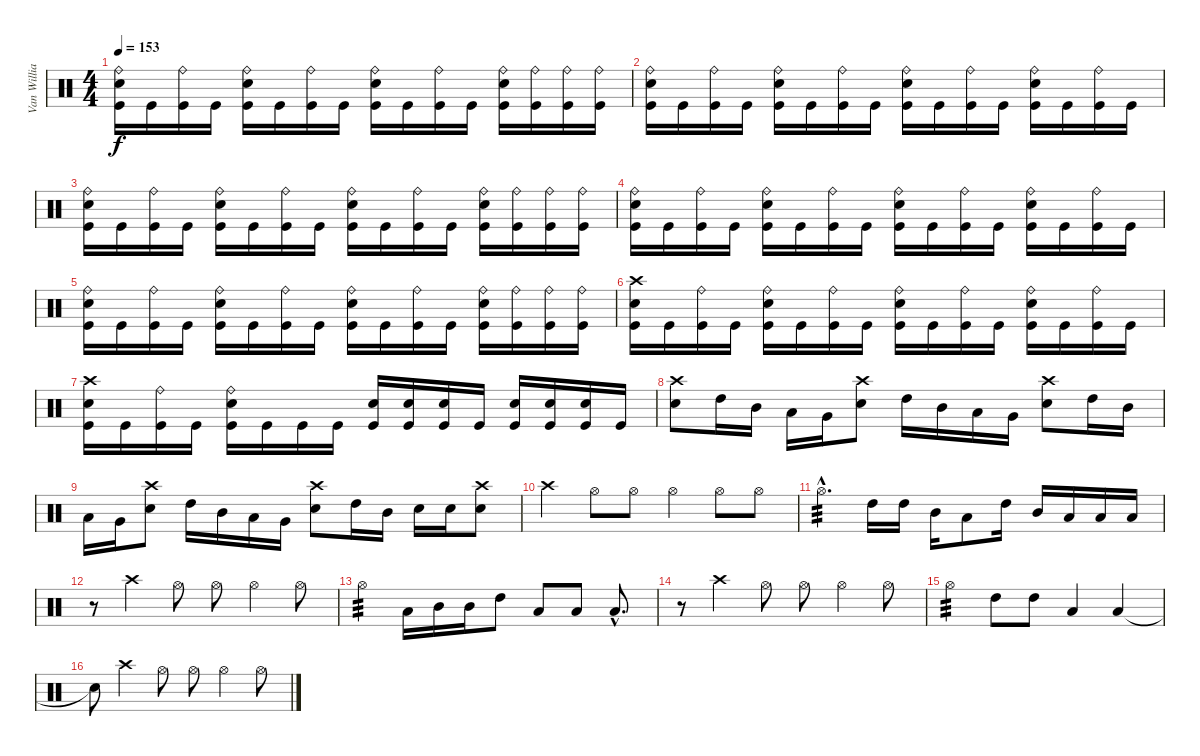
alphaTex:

\track ("Van Williams" "Van Willia") {instrument percussion}
\staff {score}
\articulation defaults
\ts (4 4)
\tempo 153
\clef neutral
\ks c
("Ride (bell)" "Electric Snare (hit)" "Kick (hit)").16{dy f} "Kick (hit)".16 ("Ride (bell)" "Kick (hit)").16 "Kick (hit)".16 ("Ride (bell)" "Electric Snare (hit)" "Kick (hit)").16 "Kick (hit)".16 ("Ride (bell)" "Kick (hit)").16 "Kick (hit)".16 ("Ride (bell)" "Electric Snare (hit)" "Kick (hit)").16 "Kick (hit)".16 ("Ride (bell)" "Kick (hit)").16 "Kick (hit)".16 ("Ride (bell)" "Electric Snare (hit)" "Kick (hit)").16 ("Ride (bell)" "Kick (hit)").16 ("Ride (bell)" "Kick (hit)").16 ("Ride (bell)" "Kick (hit)").16 |
("Ride (bell)" "Electric Snare (hit)" "Kick (hit)").16 "Kick (hit)".16 ("Ride (bell)" "Kick (hit)").16 "Kick (hit)".16 ("Ride (bell)" "Electric Snare (hit)" "Kick (hit)").16 "Kick (hit)".16 ("Ride (bell)" "Kick (hit)").16 "Kick (hit)".16 ("Ride (bell)" "Electric Snare (hit)" "Kick (hit)").16 "Kick (hit)".16 ("Ride (bell)" "Kick (hit)").16 "Kick (hit)".16 ("Ride (bell)" "Electric Snare (hit)" "Kick (hit)").16 "Kick (hit)".16 ("Ride (bell)" "Kick (hit)").16 "Kick (hit)".16 |
("Ride (bell)" "Electric Snare (hit)" "Kick (hit)").16 "Kick (hit)".16 ("Ride (bell)" "Kick (hit)").16 "Kick (hit)".16 ("Ride (bell)" "Electric Snare (hit)" "Kick (hit)").16 "Kick (hit)".16 ("Ride (bell)" "Kick (hit)").16 "Kick (hit)".16 ("Ride (bell)" "Electric Snare (hit)" "Kick (hit)").16 "Kick (hit)".16 ("Ride (bell)" "Kick (hit)").16 "Kick (hit)".16 ("Ride (bell)" "Electric Snare (hit)" "Kick (hit)").16 ("Ride (bell)" "Kick (hit)").16 ("Ride (bell)" "Kick (hit)").16 ("Ride (bell)" "Kick (hit)").16 |
("Ride (bell)" "Electric Snare (hit)" "Kick (hit)").16 "Kick (hit)".16 ("Ride (bell)" "Kick (hit)").16 "Kick (hit)".16 ("Ride (bell)" "Electric Snare (hit)" "Kick (hit)").16 "Kick (hit)".16 ("Ride (bell)" "Kick (hit)").16 "Kick (hit)".16 ("Ride (bell)" "Electric Snare (hit)" "Kick (hit)").16 "Kick (hit)".16 ("Ride (bell)" "Kick (hit)").16 "Kick (hit)".16 ("Ride (bell)" "Electric Snare (hit)" "Kick (hit)").16 "Kick (hit)".16 ("Ride (bell)" "Kick (hit)").16 "Kick (hit)".16 |
("Ride (bell)" "Electric Snare (hit)" "Kick (hit)").16 "Kick (hit)".16 ("Ride (bell)" "Kick (hit)").16 "Kick (hit)".16 ("Ride (bell)" "Electric Snare (hit)" "Kick (hit)").16 "Kick (hit)".16 ("Ride (bell)" "Kick (hit)").16 "Kick (hit)".16 ("Ride (bell)" "Electric Snare (hit)" "Kick (hit)").16 "Kick (hit)".16 ("Ride (bell)" "Kick (hit)").16 "Kick (hit)".16 ("Ride (bell)" "Electric Snare (hit)" "Kick (hit)").16 ("Ride (bell)" "Kick (hit)").16 ("Ride (bell)" "Kick (hit)").16 ("Ride (bell)" "Kick (hit)").16 |
("Crash high (hit)" "Electric Snare (hit)" "Kick (hit)").16 "Kick (hit)".16 ("Ride (bell)" "Kick (hit)").16 "Kick (hit)".16 ("Ride (bell)" "Electric Snare (hit)" "Kick (hit)").16 "Kick (hit)".16 ("Ride (bell)" "Kick (hit)").16 "Kick (hit)".16 ("Ride (bell)" "Electric Snare (hit)" "Kick (hit)").16 "Kick (hit)".16 ("Ride (bell)" "Kick (hit)").16 "Kick (hit)".16 ("Ride (bell)" "Electric Snare (hit)" "Kick (hit)").16 "Kick (hit)".16 ("Ride (bell)" "Kick (hit)").16 "Kick (hit)".16 |
("Crash high (hit)" "Electric Snare (hit)" "Kick (hit)").16 "Kick (hit)".16 ("Ride (bell)" "Kick (hit)").16 "Kick (hit)".16 ("Ride (bell)" "Electric Snare (hit)" "Kick (hit)").16 "Kick (hit)".16 "Kick (hit)".16 "Kick (hit)".16 ("Electric Snare (hit)" "Kick (hit)").16 ("Electric Snare (hit)" "Kick (hit)").16 ("Electric Snare (hit)" "Kick (hit)").16 "Kick (hit)".16 ("Electric Snare (hit)" "Kick (hit)").16 ("Electric Snare (hit)" "Kick (hit)").16 ("Electric Snare (hit)" "Kick (hit)").16 "Kick (hit)".16 |
("Crash high (hit)" "Electric Snare (hit)").8 "High Tom (hit)".16 "Mid Tom (hit)".16 "Low Tom (hit)".16 "Very Low Tom (hit)".16 ("Crash high (hit)" "Electric Snare (hit)").8 "High Tom (hit)".16 "Mid Tom (hit)".16 "Low Tom (hit)".16 "Very Low Tom (hit)".16 ("Crash high (hit)" "Electric Snare (hit)").8 "High Tom (hit)".16 "Mid Tom (hit)".16 |
"Low Tom (hit)".16 "Very Low Tom (hit)".16 ("Crash high (hit)" "Electric Snare (hit)").8 "High Tom (hit)".16 "Mid Tom (hit)".16 "Low Tom (hit)".16 "Very Low Tom (hit)".16 ("Crash high (hit)" "Electric Snare (hit)").8 "High Tom (hit)".16 "Mid Tom (hit)".16 "Electric Snare (hit)".16 "Electric Snare (hit)".16 ("Crash high (hit)" "Electric Snare (hit)").8 |
"Crash high (hit)".4 "Hi-Hat (open)".8 "Hi-Hat (open)".8 "Hi-Hat (open)".4 "Hi-Hat (open)".8 "Hi-Hat (open)".8 |
"Hi-Hat (open)"{hac}.4{d tp 3} "High Tom (hit)".16 "High Tom (hit)".16 "Mid Tom (hit)".16 "Low Floor Tom (hit)".8 "High Tom (hit)".16 "Mid Tom (hit)".16 "Low Tom (hit)".16 "Low Floor Tom (hit)".16 "Low Floor Tom (hit)".16 |
r.8 "Crash high (hit)".4 "Hi-Hat (open)".8 "Hi-Hat (open)".8 "Hi-Hat (open)".4 "Hi-Hat (open)".8 |
"Hi-Hat (open)".4{tp 3} "Low Tom (hit)".16 "Mid Tom (hit)".16 "Mid Tom (hit)".16 "High Tom (hit)".8 "Low Tom (hit)".8 "Low Tom (hit)".8 "Low Tom (hit)"{hac}.8{d} |
r.8 "Crash high (hit)".4 "Hi-Hat (open)".8 "Hi-Hat (open)".8 "Hi-Hat (open)".4 "Hi-Hat (open)".8 |
"Hi-Hat (open)".4{tp 3} "High Tom (hit)".8 "High Tom (hit)".8 "Low Tom (hit)".4 "Low Floor Tom (hit)".4 |
"Snare (hit)"{t}.8 "Crash high (hit)".4 "Hi-Hat (open)".8 "Hi-Hat (open)".8 "Hi-Hat (open)".4 "Hi-Hat (open)".8
